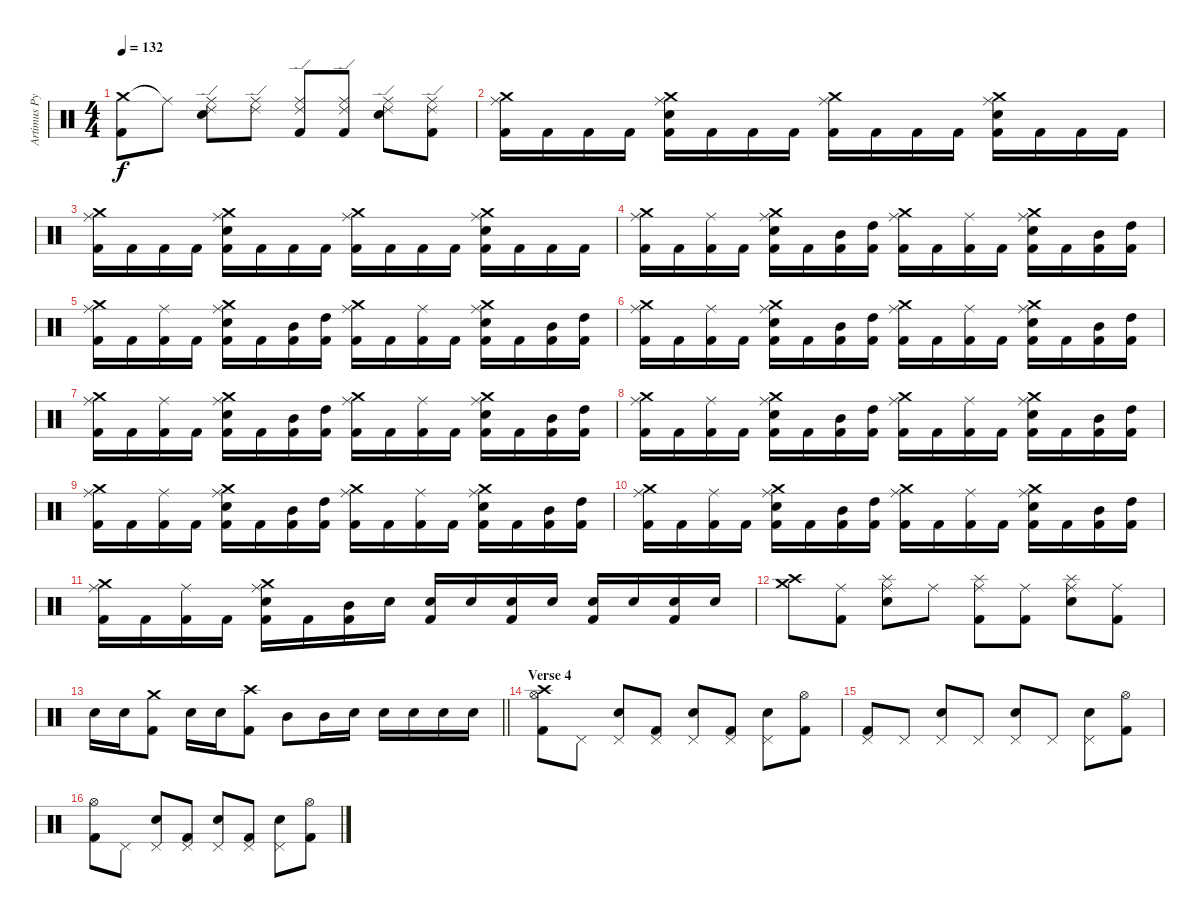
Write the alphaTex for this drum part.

\track ("Artimus Pyle" "Artimus Py") {instrument percussion}
\staff {score}
\articulation defaults
\ts (4 4)
\tempo 132
\clef neutral
\ks c
("Crash medium (hit)" "Kick (hit) 2").8{dy f} "Ride (middle)"{t}.8 ("Ride (middle)" "Ride (edge) 2" "Snare (hit) 2").8 ("Ride (middle)" "Ride (edge) 2").8 ("Ride (middle)" "Ride (edge) 2" "Kick (hit) 2").8 ("Ride (middle)" "Ride (edge) 2" "Kick (hit) 2").8 ("Ride (middle)" "Ride (edge) 2" "Snare (hit) 2").8 ("Ride (middle)" "Ride (edge) 2" "Kick (hit) 2").8 |
("Crash medium (hit)" "Ride (middle)" "Kick (hit) 2").16 "Kick (hit) 2".16 "Kick (hit) 2".16 "Kick (hit) 2".16 ("Crash medium (hit)" "Ride (middle)" "Snare (hit) 2" "Kick (hit) 2").16 "Kick (hit) 2".16 "Kick (hit) 2".16 "Kick (hit) 2".16 ("Crash medium (hit)" "Ride (middle)" "Kick (hit) 2").16 "Kick (hit) 2".16 "Kick (hit) 2".16 "Kick (hit) 2".16 ("Crash medium (hit)" "Ride (middle)" "Snare (hit) 2" "Kick (hit) 2").16 "Kick (hit) 2".16 "Kick (hit) 2".16 "Kick (hit) 2".16 |
("Crash medium (hit)" "Ride (middle)" "Kick (hit) 2").16 "Kick (hit) 2".16 "Kick (hit) 2".16 "Kick (hit) 2".16 ("Crash medium (hit)" "Ride (middle)" "Snare (hit) 2" "Kick (hit) 2").16 "Kick (hit) 2".16 "Kick (hit) 2".16 "Kick (hit) 2".16 ("Crash medium (hit)" "Ride (middle)" "Kick (hit) 2").16 "Kick (hit) 2".16 "Kick (hit) 2".16 "Kick (hit) 2".16 ("Crash medium (hit)" "Ride (middle)" "Snare (hit) 2" "Kick (hit) 2").16 "Kick (hit) 2".16 "Kick (hit) 2".16 "Kick (hit) 2".16 |
("Crash medium (hit)" "Ride (middle)" "Kick (hit) 2").16 "Kick (hit) 2".16 ("Ride (middle)" "Kick (hit) 2").16 "Kick (hit) 2".16 ("Crash medium (hit)" "Ride (middle)" "Snare (hit) 2" "Kick (hit) 2").16 "Kick (hit) 2".16 ("Mid Tom (hit)" "Kick (hit) 2").16 ("High Tom (hit)" "Kick (hit) 2").16 ("Crash medium (hit)" "Ride (middle)" "Kick (hit) 2").16 "Kick (hit) 2".16 ("Ride (middle)" "Kick (hit) 2").16 "Kick (hit) 2".16 ("Crash medium (hit)" "Ride (middle)" "Snare (hit) 2" "Kick (hit) 2").16 "Kick (hit) 2".16 ("Mid Tom (hit)" "Kick (hit) 2").16 ("High Tom (hit)" "Kick (hit) 2").16 |
("Crash medium (hit)" "Ride (middle)" "Kick (hit) 2").16 "Kick (hit) 2".16 ("Ride (middle)" "Kick (hit) 2").16 "Kick (hit) 2".16 ("Crash medium (hit)" "Ride (middle)" "Snare (hit) 2" "Kick (hit) 2").16 "Kick (hit) 2".16 ("Mid Tom (hit)" "Kick (hit) 2").16 ("High Tom (hit)" "Kick (hit) 2").16 ("Crash medium (hit)" "Ride (middle)" "Kick (hit) 2").16 "Kick (hit) 2".16 ("Ride (middle)" "Kick (hit) 2").16 "Kick (hit) 2".16 ("Crash medium (hit)" "Ride (middle)" "Snare (hit) 2" "Kick (hit) 2").16 "Kick (hit) 2".16 ("Mid Tom (hit)" "Kick (hit) 2").16 ("High Tom (hit)" "Kick (hit) 2").16 |
("Crash medium (hit)" "Ride (middle)" "Kick (hit) 2").16 "Kick (hit) 2".16 ("Ride (middle)" "Kick (hit) 2").16 "Kick (hit) 2".16 ("Crash medium (hit)" "Ride (middle)" "Snare (hit) 2" "Kick (hit) 2").16 "Kick (hit) 2".16 ("Mid Tom (hit)" "Kick (hit) 2").16 ("High Tom (hit)" "Kick (hit) 2").16 ("Crash medium (hit)" "Ride (middle)" "Kick (hit) 2").16 "Kick (hit) 2".16 ("Ride (middle)" "Kick (hit) 2").16 "Kick (hit) 2".16 ("Crash medium (hit)" "Ride (middle)" "Snare (hit) 2" "Kick (hit) 2").16 "Kick (hit) 2".16 ("Mid Tom (hit)" "Kick (hit) 2").16 ("High Tom (hit)" "Kick (hit) 2").16 |
("Crash medium (hit)" "Ride (middle)" "Kick (hit) 2").16 "Kick (hit) 2".16 ("Ride (middle)" "Kick (hit) 2").16 "Kick (hit) 2".16 ("Crash medium (hit)" "Ride (middle)" "Snare (hit) 2" "Kick (hit) 2").16 "Kick (hit) 2".16 ("Mid Tom (hit)" "Kick (hit) 2").16 ("High Tom (hit)" "Kick (hit) 2").16 ("Crash medium (hit)" "Ride (middle)" "Kick (hit) 2").16 "Kick (hit) 2".16 ("Ride (middle)" "Kick (hit) 2").16 "Kick (hit) 2".16 ("Crash medium (hit)" "Ride (middle)" "Snare (hit) 2" "Kick (hit) 2").16 "Kick (hit) 2".16 ("Mid Tom (hit)" "Kick (hit) 2").16 ("High Tom (hit)" "Kick (hit) 2").16 |
("Crash medium (hit)" "Ride (middle)" "Kick (hit) 2").16 "Kick (hit) 2".16 ("Ride (middle)" "Kick (hit) 2").16 "Kick (hit) 2".16 ("Crash medium (hit)" "Ride (middle)" "Snare (hit) 2" "Kick (hit) 2").16 "Kick (hit) 2".16 ("Mid Tom (hit)" "Kick (hit) 2").16 ("High Tom (hit)" "Kick (hit) 2").16 ("Crash medium (hit)" "Ride (middle)" "Kick (hit) 2").16 "Kick (hit) 2".16 ("Ride (middle)" "Kick (hit) 2").16 "Kick (hit) 2".16 ("Crash medium (hit)" "Ride (middle)" "Snare (hit) 2" "Kick (hit) 2").16 "Kick (hit) 2".16 ("Mid Tom (hit)" "Kick (hit) 2").16 ("High Tom (hit)" "Kick (hit) 2").16 |
("Crash medium (hit)" "Ride (middle)" "Kick (hit) 2").16 "Kick (hit) 2".16 ("Ride (middle)" "Kick (hit) 2").16 "Kick (hit) 2".16 ("Crash medium (hit)" "Ride (middle)" "Snare (hit) 2" "Kick (hit) 2").16 "Kick (hit) 2".16 ("Mid Tom (hit)" "Kick (hit) 2").16 ("High Tom (hit)" "Kick (hit) 2").16 ("Crash medium (hit)" "Ride (middle)" "Kick (hit) 2").16 "Kick (hit) 2".16 ("Ride (middle)" "Kick (hit) 2").16 "Kick (hit) 2".16 ("Crash medium (hit)" "Ride (middle)" "Snare (hit) 2" "Kick (hit) 2").16 "Kick (hit) 2".16 ("Mid Tom (hit)" "Kick (hit) 2").16 ("High Tom (hit)" "Kick (hit) 2").16 |
("Crash medium (hit)" "Ride (middle)" "Kick (hit) 2").16 "Kick (hit) 2".16 ("Ride (middle)" "Kick (hit) 2").16 "Kick (hit) 2".16 ("Crash medium (hit)" "Ride (middle)" "Snare (hit) 2" "Kick (hit) 2").16 "Kick (hit) 2".16 ("Mid Tom (hit)" "Kick (hit) 2").16 ("High Tom (hit)" "Kick (hit) 2").16 ("Crash medium (hit)" "Ride (middle)" "Kick (hit) 2").16 "Kick (hit) 2".16 ("Ride (middle)" "Kick (hit) 2").16 "Kick (hit) 2".16 ("Crash medium (hit)" "Ride (middle)" "Snare (hit) 2" "Kick (hit) 2").16 "Kick (hit) 2".16 ("Mid Tom (hit)" "Kick (hit) 2").16 ("High Tom (hit)" "Kick (hit) 2").16 |
("Crash medium (hit)" "Ride (middle)" "Kick (hit) 2").16 "Kick (hit) 2".16 ("Ride (middle)" "Kick (hit) 2").16 "Kick (hit) 2".16 ("Crash medium (hit)" "Ride (middle)" "Snare (hit) 2" "Kick (hit) 2").16 "Kick (hit) 2".16 ("Mid Tom (hit)" "Kick (hit) 2").16 "Snare (hit) 2".16 ("Snare (hit) 2" "Kick (hit) 2").16 "Snare (hit) 2".16 ("Snare (hit) 2" "Kick (hit) 2").16 "Snare (hit) 2".16 ("Snare (hit) 2" "Kick (hit) 2").16 "Snare (hit) 2".16 ("Snare (hit) 2" "Kick (hit) 2").16 "Snare (hit) 2".16 |
("Crash medium (hit)" "Crash high (hit)").8 ("Ride (middle)" "Kick (hit) 2").8 ("Splash (hit)" "Ride (middle)" "Snare (hit) 2").8 "Ride (middle)".8 ("Splash (hit)" "Ride (middle)" "Kick (hit) 2").8 ("Ride (middle)" "Kick (hit) 2").8 ("Splash (hit)" "Ride (middle)" "Snare (hit) 2").8 ("Ride (middle)" "Kick (hit) 2").8 |
\barLineRight lightlight "Snare (hit) 2".16 "Snare (hit) 2".16
("Crash medium (hit)" "Kick (hit) 2").8 "Snare (hit) 2".16 "Snare (hit) 2".16 ("Crash high (hit)" "Kick (hit) 2").8 "Mid Tom (hit)".8 "Mid Tom (hit)".16 "Snare (hit) 2".16 "Snare (hit) 2".16 "Snare (hit) 2".16 "Snare (hit) 2".16 "Snare (hit) 2".16 |
\section ("" "Verse 4")
("Crash high (hit)" "Hi-Hat (open)" "Kick (hit) 2").8 "Pedal Hi-Hat (hit)".8 ("Snare (hit) 2" "Pedal Hi-Hat (hit)").8 ("Pedal Hi-Hat (hit)" "Kick (hit) 2").8 ("Snare (hit) 2" "Pedal Hi-Hat (hit)").8 ("Pedal Hi-Hat (hit)" "Kick (hit) 2").8 ("Snare (hit) 2" "Pedal Hi-Hat (hit)").8 ("Hi-Hat (open)" "Kick (hit) 2").8 |
("Pedal Hi-Hat (hit)" "Kick (hit) 2").8 "Pedal Hi-Hat (hit)".8 ("Snare (hit) 2" "Pedal Hi-Hat (hit)").8 "Pedal Hi-Hat (hit)".8 ("Snare (hit) 2" "Pedal Hi-Hat (hit)").8 "Pedal Hi-Hat (hit)".8 ("Snare (hit) 2" "Pedal Hi-Hat (hit)").8 ("Hi-Hat (open)" "Kick (hit) 2").8 |
("Hi-Hat (open)" "Kick (hit) 2").8 "Pedal Hi-Hat (hit)".8 ("Snare (hit) 2" "Pedal Hi-Hat (hit)").8 ("Pedal Hi-Hat (hit)" "Kick (hit) 2").8 ("Snare (hit) 2" "Pedal Hi-Hat (hit)").8 ("Pedal Hi-Hat (hit)" "Kick (hit) 2").8 ("Snare (hit) 2" "Pedal Hi-Hat (hit)").8 ("Hi-Hat (open)" "Kick (hit) 2").8
